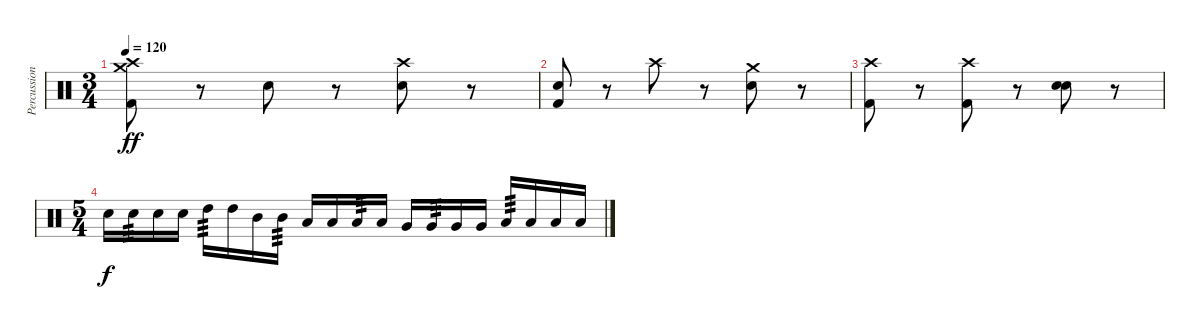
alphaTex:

\track ("Percussion" "Percussion") {instrument percussion}
\staff {score}
\articulation defaults
\ts (3 4)
\tempo 120
\clef neutral
\ks c
("Crash medium (hit)" "Crash high (hit)" "Kick (hit) 2").8{dy ff} r.8 "Snare (hit)".8 r.8 ("Crash high (hit)" "Snare (hit) 2").8 r.8 |
("Snare (hit)" "Kick (hit) 2").8 r.8 "Crash high (hit)".8 r.8 ("Crash medium (hit)" "Snare (hit) 2").8 r.8 |
("Crash high (hit)" "Kick (hit) 2").8 r.8 ("Crash high (hit)" "Kick (hit) 2").8 r.8 ("Snare (hit)" "Snare (hit) 2").8 r.8 |
\ts (5 4)
"Snare (hit) 2".16{dy f} "Snare (hit) 2".16{tp 3} "Snare (hit) 2".16 "Snare (hit) 2".16 "High Tom (hit)".16{tp 3} "High Tom (hit)".16 "Mid Tom (hit)".16 "Mid Tom (hit)".16{tp 3} "Low Tom (hit)".16 "Low Tom (hit)".16 "Low Tom (hit)".16{tp 3} "Low Tom (hit)".16 "Very Low Tom (hit)".16 "Very Low Tom (hit)".16{tp 3} "Very Low Tom (hit)".16 "Very Low Tom (hit)".16 "Low Floor Tom (hit)".16{tp 3} "Low Floor Tom (hit)".16 "Low Floor Tom (hit)".16 "Low Floor Tom (hit)".16
